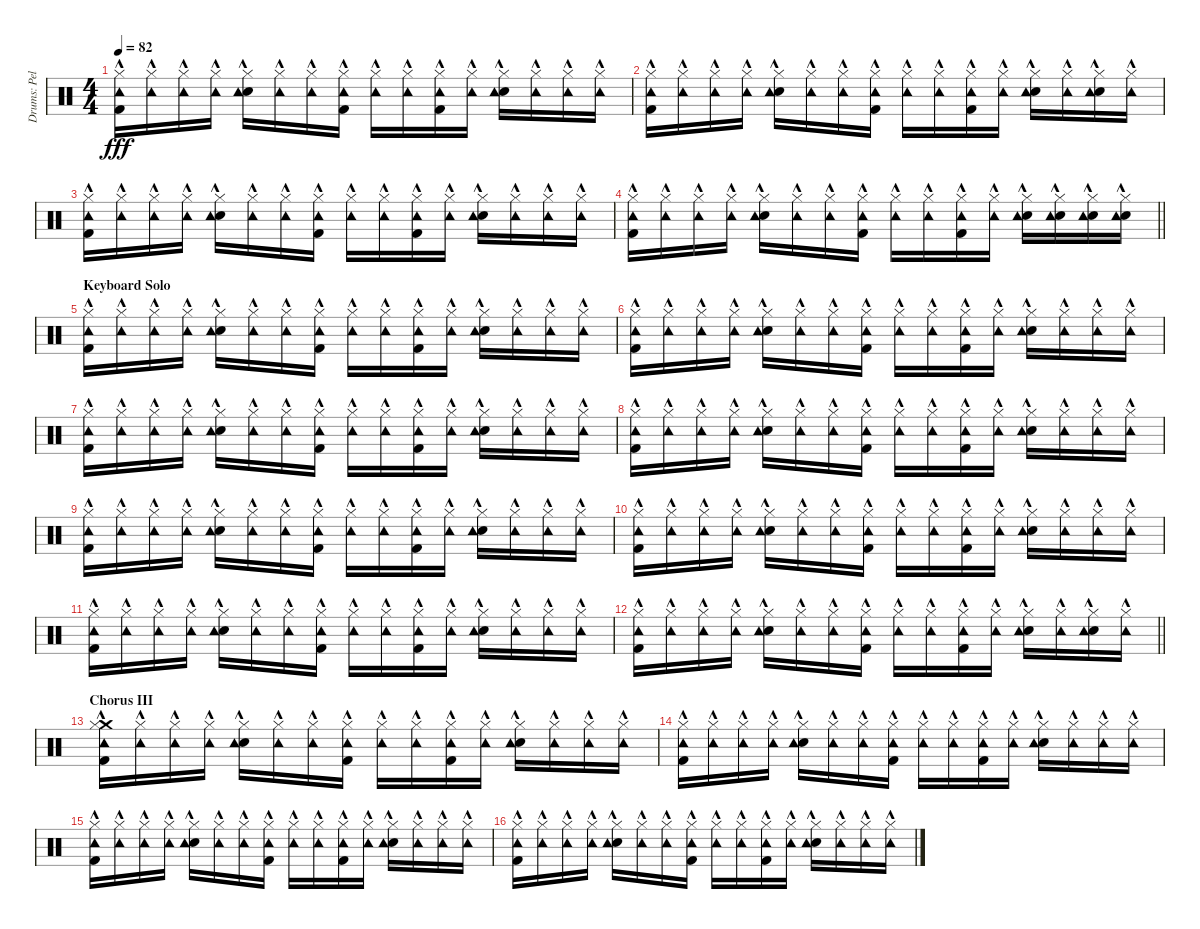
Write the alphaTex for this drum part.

\track ("Drums: Pelle" "Drums: Pel") {instrument percussion}
\staff {score}
\articulation defaults
\ts (4 4)
\tempo 82
\clef neutral
\ks c
("Hi-Hat (closed)"{hac} "Tambourine (hit)"{hac} "Kick (hit) 2"{hac}).16{dy fff} ("Hi-Hat (closed)"{hac} "Tambourine (hit)"{hac}).16 ("Hi-Hat (closed)"{hac} "Tambourine (hit)"{hac}).16 ("Hi-Hat (closed)"{hac} "Tambourine (hit)"{hac}).16 ("Hi-Hat (closed)"{hac} "Snare (hit) 2"{hac} "Tambourine (hit)"{hac}).16 ("Hi-Hat (closed)"{hac} "Tambourine (hit)"{hac}).16 ("Hi-Hat (closed)"{hac} "Tambourine (hit)"{hac}).16 ("Hi-Hat (closed)"{hac} "Tambourine (hit)"{hac} "Kick (hit) 2"{hac}).16 ("Hi-Hat (closed)"{hac} "Tambourine (hit)"{hac}).16 ("Hi-Hat (closed)"{hac} "Tambourine (hit)"{hac}).16 ("Hi-Hat (closed)"{hac} "Tambourine (hit)"{hac} "Kick (hit) 2"{hac}).16 ("Hi-Hat (closed)"{hac} "Tambourine (hit)"{hac}).16 ("Hi-Hat (closed)"{hac} "Snare (hit) 2"{hac} "Tambourine (hit)"{hac}).16 ("Hi-Hat (closed)"{hac} "Tambourine (hit)"{hac}).16 ("Hi-Hat (closed)"{hac} "Tambourine (hit)"{hac}).16 ("Hi-Hat (closed)"{hac} "Tambourine (hit)"{hac}).16 |
("Hi-Hat (closed)"{hac} "Tambourine (hit)"{hac} "Kick (hit) 2"{hac}).16 ("Hi-Hat (closed)"{hac} "Tambourine (hit)"{hac}).16 ("Hi-Hat (closed)"{hac} "Tambourine (hit)"{hac}).16 ("Hi-Hat (closed)"{hac} "Tambourine (hit)"{hac}).16 ("Hi-Hat (closed)"{hac} "Snare (hit) 2"{hac} "Tambourine (hit)"{hac}).16 ("Hi-Hat (closed)"{hac} "Tambourine (hit)"{hac}).16 ("Hi-Hat (closed)"{hac} "Tambourine (hit)"{hac}).16 ("Hi-Hat (closed)"{hac} "Tambourine (hit)"{hac} "Kick (hit) 2"{hac}).16 ("Hi-Hat (closed)"{hac} "Tambourine (hit)"{hac}).16 ("Hi-Hat (closed)"{hac} "Tambourine (hit)"{hac}).16 ("Hi-Hat (closed)"{hac} "Tambourine (hit)"{hac} "Kick (hit) 2"{hac}).16 ("Hi-Hat (closed)"{hac} "Tambourine (hit)"{hac}).16 ("Hi-Hat (closed)"{hac} "Snare (hit) 2"{hac} "Tambourine (hit)"{hac}).16 ("Hi-Hat (closed)"{hac} "Tambourine (hit)"{hac}).16 ("Hi-Hat (closed)"{hac} "Snare (hit) 2"{hac} "Tambourine (hit)"{hac}).16 ("Hi-Hat (closed)"{hac} "Tambourine (hit)"{hac}).16 |
("Hi-Hat (closed)"{hac} "Tambourine (hit)"{hac} "Kick (hit) 2"{hac}).16 ("Hi-Hat (closed)"{hac} "Tambourine (hit)"{hac}).16 ("Hi-Hat (closed)"{hac} "Tambourine (hit)"{hac}).16 ("Hi-Hat (closed)"{hac} "Tambourine (hit)"{hac}).16 ("Hi-Hat (closed)"{hac} "Snare (hit) 2"{hac} "Tambourine (hit)"{hac}).16 ("Hi-Hat (closed)"{hac} "Tambourine (hit)"{hac}).16 ("Hi-Hat (closed)"{hac} "Tambourine (hit)"{hac}).16 ("Hi-Hat (closed)"{hac} "Tambourine (hit)"{hac} "Kick (hit) 2"{hac}).16 ("Hi-Hat (closed)"{hac} "Tambourine (hit)"{hac}).16 ("Hi-Hat (closed)"{hac} "Tambourine (hit)"{hac}).16 ("Hi-Hat (closed)"{hac} "Tambourine (hit)"{hac} "Kick (hit) 2"{hac}).16 ("Hi-Hat (closed)"{hac} "Tambourine (hit)"{hac}).16 ("Hi-Hat (closed)"{hac} "Snare (hit) 2"{hac} "Tambourine (hit)"{hac}).16 ("Hi-Hat (closed)"{hac} "Tambourine (hit)"{hac}).16 ("Hi-Hat (closed)"{hac} "Tambourine (hit)"{hac}).16 ("Hi-Hat (closed)"{hac} "Tambourine (hit)"{hac}).16 |
\barLineRight lightlight
("Hi-Hat (closed)"{hac} "Tambourine (hit)"{hac} "Kick (hit) 2"{hac}).16 ("Hi-Hat (closed)"{hac} "Tambourine (hit)"{hac}).16 ("Hi-Hat (closed)"{hac} "Tambourine (hit)"{hac}).16 ("Hi-Hat (closed)"{hac} "Tambourine (hit)"{hac}).16 ("Hi-Hat (closed)"{hac} "Snare (hit) 2"{hac} "Tambourine (hit)"{hac}).16 ("Hi-Hat (closed)"{hac} "Tambourine (hit)"{hac}).16 ("Hi-Hat (closed)"{hac} "Tambourine (hit)"{hac}).16 ("Hi-Hat (closed)"{hac} "Tambourine (hit)"{hac} "Kick (hit) 2"{hac}).16 ("Hi-Hat (closed)"{hac} "Tambourine (hit)"{hac}).16 ("Hi-Hat (closed)"{hac} "Tambourine (hit)"{hac}).16 ("Hi-Hat (closed)"{hac} "Tambourine (hit)"{hac} "Kick (hit) 2"{hac}).16 ("Hi-Hat (closed)"{hac} "Tambourine (hit)"{hac}).16 ("Hi-Hat (closed)"{hac} "Snare (hit) 2"{hac} "Tambourine (hit)"{hac}).16 ("Hi-Hat (closed)"{hac} "Snare (hit) 2"{hac} "Tambourine (hit)"{hac}).16 ("Hi-Hat (closed)"{hac} "Snare (hit) 2"{hac} "Tambourine (hit)"{hac}).16 ("Hi-Hat (closed)"{hac} "Snare (hit) 2"{hac} "Tambourine (hit)"{hac}).16 |
\section ("" "Keyboard Solo")
("Hi-Hat (closed)"{hac} "Tambourine (hit)"{hac} "Kick (hit) 2"{hac}).16 ("Hi-Hat (closed)"{hac} "Tambourine (hit)"{hac}).16 ("Hi-Hat (closed)"{hac} "Tambourine (hit)"{hac}).16 ("Hi-Hat (closed)"{hac} "Tambourine (hit)"{hac}).16 ("Hi-Hat (closed)"{hac} "Snare (hit) 2"{hac} "Tambourine (hit)"{hac}).16 ("Hi-Hat (closed)"{hac} "Tambourine (hit)"{hac}).16 ("Hi-Hat (closed)"{hac} "Tambourine (hit)"{hac}).16 ("Hi-Hat (closed)"{hac} "Tambourine (hit)"{hac} "Kick (hit) 2"{hac}).16 ("Hi-Hat (closed)"{hac} "Tambourine (hit)"{hac}).16 ("Hi-Hat (closed)"{hac} "Tambourine (hit)"{hac}).16 ("Hi-Hat (closed)"{hac} "Tambourine (hit)"{hac} "Kick (hit) 2"{hac}).16 ("Hi-Hat (closed)"{hac} "Tambourine (hit)"{hac}).16 ("Hi-Hat (closed)"{hac} "Snare (hit) 2"{hac} "Tambourine (hit)"{hac}).16 ("Hi-Hat (closed)"{hac} "Tambourine (hit)"{hac}).16 ("Hi-Hat (closed)"{hac} "Tambourine (hit)"{hac}).16 ("Hi-Hat (closed)"{hac} "Tambourine (hit)"{hac}).16 |
("Hi-Hat (closed)"{hac} "Tambourine (hit)"{hac} "Kick (hit) 2"{hac}).16 ("Hi-Hat (closed)"{hac} "Tambourine (hit)"{hac}).16 ("Hi-Hat (closed)"{hac} "Tambourine (hit)"{hac}).16 ("Hi-Hat (closed)"{hac} "Tambourine (hit)"{hac}).16 ("Hi-Hat (closed)"{hac} "Snare (hit) 2"{hac} "Tambourine (hit)"{hac}).16 ("Hi-Hat (closed)"{hac} "Tambourine (hit)"{hac}).16 ("Hi-Hat (closed)"{hac} "Tambourine (hit)"{hac}).16 ("Hi-Hat (closed)"{hac} "Tambourine (hit)"{hac} "Kick (hit) 2"{hac}).16 ("Hi-Hat (closed)"{hac} "Tambourine (hit)"{hac}).16 ("Hi-Hat (closed)"{hac} "Tambourine (hit)"{hac}).16 ("Hi-Hat (closed)"{hac} "Tambourine (hit)"{hac} "Kick (hit) 2"{hac}).16 ("Hi-Hat (closed)"{hac} "Tambourine (hit)"{hac}).16 ("Hi-Hat (closed)"{hac} "Snare (hit) 2"{hac} "Tambourine (hit)"{hac}).16 ("Hi-Hat (closed)"{hac} "Tambourine (hit)"{hac}).16 ("Hi-Hat (closed)"{hac} "Tambourine (hit)"{hac}).16 ("Hi-Hat (closed)"{hac} "Tambourine (hit)"{hac}).16 |
("Hi-Hat (closed)"{hac} "Tambourine (hit)"{hac} "Kick (hit) 2"{hac}).16 ("Hi-Hat (closed)"{hac} "Tambourine (hit)"{hac}).16 ("Hi-Hat (closed)"{hac} "Tambourine (hit)"{hac}).16 ("Hi-Hat (closed)"{hac} "Tambourine (hit)"{hac}).16 ("Hi-Hat (closed)"{hac} "Snare (hit) 2"{hac} "Tambourine (hit)"{hac}).16 ("Hi-Hat (closed)"{hac} "Tambourine (hit)"{hac}).16 ("Hi-Hat (closed)"{hac} "Tambourine (hit)"{hac}).16 ("Hi-Hat (closed)"{hac} "Tambourine (hit)"{hac} "Kick (hit) 2"{hac}).16 ("Hi-Hat (closed)"{hac} "Tambourine (hit)"{hac}).16 ("Hi-Hat (closed)"{hac} "Tambourine (hit)"{hac}).16 ("Hi-Hat (closed)"{hac} "Tambourine (hit)"{hac} "Kick (hit) 2"{hac}).16 ("Hi-Hat (closed)"{hac} "Tambourine (hit)"{hac}).16 ("Hi-Hat (closed)"{hac} "Snare (hit) 2"{hac} "Tambourine (hit)"{hac}).16 ("Hi-Hat (closed)"{hac} "Tambourine (hit)"{hac}).16 ("Hi-Hat (closed)"{hac} "Tambourine (hit)"{hac}).16 ("Hi-Hat (closed)"{hac} "Tambourine (hit)"{hac}).16 |
("Hi-Hat (closed)"{hac} "Tambourine (hit)"{hac} "Kick (hit) 2"{hac}).16 ("Hi-Hat (closed)"{hac} "Tambourine (hit)"{hac}).16 ("Hi-Hat (closed)"{hac} "Tambourine (hit)"{hac}).16 ("Hi-Hat (closed)"{hac} "Tambourine (hit)"{hac}).16 ("Hi-Hat (closed)"{hac} "Snare (hit) 2"{hac} "Tambourine (hit)"{hac}).16 ("Hi-Hat (closed)"{hac} "Tambourine (hit)"{hac}).16 ("Hi-Hat (closed)"{hac} "Tambourine (hit)"{hac}).16 ("Hi-Hat (closed)"{hac} "Tambourine (hit)"{hac} "Kick (hit) 2"{hac}).16 ("Hi-Hat (closed)"{hac} "Tambourine (hit)"{hac}).16 ("Hi-Hat (closed)"{hac} "Tambourine (hit)"{hac}).16 ("Hi-Hat (closed)"{hac} "Tambourine (hit)"{hac} "Kick (hit) 2"{hac}).16 ("Hi-Hat (closed)"{hac} "Tambourine (hit)"{hac}).16 ("Hi-Hat (closed)"{hac} "Snare (hit) 2"{hac} "Tambourine (hit)"{hac}).16 ("Hi-Hat (closed)"{hac} "Tambourine (hit)"{hac}).16 ("Hi-Hat (closed)"{hac} "Tambourine (hit)"{hac}).16 ("Hi-Hat (closed)"{hac} "Tambourine (hit)"{hac}).16 |
("Hi-Hat (closed)"{hac} "Tambourine (hit)"{hac} "Kick (hit) 2"{hac}).16 ("Hi-Hat (closed)"{hac} "Tambourine (hit)"{hac}).16 ("Hi-Hat (closed)"{hac} "Tambourine (hit)"{hac}).16 ("Hi-Hat (closed)"{hac} "Tambourine (hit)"{hac}).16 ("Hi-Hat (closed)"{hac} "Snare (hit) 2"{hac} "Tambourine (hit)"{hac}).16 ("Hi-Hat (closed)"{hac} "Tambourine (hit)"{hac}).16 ("Hi-Hat (closed)"{hac} "Tambourine (hit)"{hac}).16 ("Hi-Hat (closed)"{hac} "Tambourine (hit)"{hac} "Kick (hit) 2"{hac}).16 ("Hi-Hat (closed)"{hac} "Tambourine (hit)"{hac}).16 ("Hi-Hat (closed)"{hac} "Tambourine (hit)"{hac}).16 ("Hi-Hat (closed)"{hac} "Tambourine (hit)"{hac} "Kick (hit) 2"{hac}).16 ("Hi-Hat (closed)"{hac} "Tambourine (hit)"{hac}).16 ("Hi-Hat (closed)"{hac} "Snare (hit) 2"{hac} "Tambourine (hit)"{hac}).16 ("Hi-Hat (closed)"{hac} "Tambourine (hit)"{hac}).16 ("Hi-Hat (closed)"{hac} "Tambourine (hit)"{hac}).16 ("Hi-Hat (closed)"{hac} "Tambourine (hit)"{hac}).16 |
("Hi-Hat (closed)"{hac} "Tambourine (hit)"{hac} "Kick (hit) 2"{hac}).16 ("Hi-Hat (closed)"{hac} "Tambourine (hit)"{hac}).16 ("Hi-Hat (closed)"{hac} "Tambourine (hit)"{hac}).16 ("Hi-Hat (closed)"{hac} "Tambourine (hit)"{hac}).16 ("Hi-Hat (closed)"{hac} "Snare (hit) 2"{hac} "Tambourine (hit)"{hac}).16 ("Hi-Hat (closed)"{hac} "Tambourine (hit)"{hac}).16 ("Hi-Hat (closed)"{hac} "Tambourine (hit)"{hac}).16 ("Hi-Hat (closed)"{hac} "Tambourine (hit)"{hac} "Kick (hit) 2"{hac}).16 ("Hi-Hat (closed)"{hac} "Tambourine (hit)"{hac}).16 ("Hi-Hat (closed)"{hac} "Tambourine (hit)"{hac}).16 ("Hi-Hat (closed)"{hac} "Tambourine (hit)"{hac} "Kick (hit) 2"{hac}).16 ("Hi-Hat (closed)"{hac} "Tambourine (hit)"{hac}).16 ("Hi-Hat (closed)"{hac} "Snare (hit) 2"{hac} "Tambourine (hit)"{hac}).16 ("Hi-Hat (closed)"{hac} "Tambourine (hit)"{hac}).16 ("Hi-Hat (closed)"{hac} "Tambourine (hit)"{hac}).16 ("Hi-Hat (closed)"{hac} "Tambourine (hit)"{hac}).16 |
("Hi-Hat (closed)"{hac} "Tambourine (hit)"{hac} "Kick (hit) 2"{hac}).16 ("Hi-Hat (closed)"{hac} "Tambourine (hit)"{hac}).16 ("Hi-Hat (closed)"{hac} "Tambourine (hit)"{hac}).16 ("Hi-Hat (closed)"{hac} "Tambourine (hit)"{hac}).16 ("Hi-Hat (closed)"{hac} "Snare (hit) 2"{hac} "Tambourine (hit)"{hac}).16 ("Hi-Hat (closed)"{hac} "Tambourine (hit)"{hac}).16 ("Hi-Hat (closed)"{hac} "Tambourine (hit)"{hac}).16 ("Hi-Hat (closed)"{hac} "Tambourine (hit)"{hac} "Kick (hit) 2"{hac}).16 ("Hi-Hat (closed)"{hac} "Tambourine (hit)"{hac}).16 ("Hi-Hat (closed)"{hac} "Tambourine (hit)"{hac}).16 ("Hi-Hat (closed)"{hac} "Tambourine (hit)"{hac} "Kick (hit) 2"{hac}).16 ("Hi-Hat (closed)"{hac} "Tambourine (hit)"{hac}).16 ("Hi-Hat (closed)"{hac} "Snare (hit) 2"{hac} "Tambourine (hit)"{hac}).16 ("Hi-Hat (closed)"{hac} "Tambourine (hit)"{hac}).16 ("Hi-Hat (closed)"{hac} "Tambourine (hit)"{hac}).16 ("Hi-Hat (closed)"{hac} "Tambourine (hit)"{hac}).16 |
\barLineRight lightlight
("Hi-Hat (closed)"{hac} "Tambourine (hit)"{hac} "Kick (hit) 2"{hac}).16 ("Hi-Hat (closed)"{hac} "Tambourine (hit)"{hac}).16 ("Hi-Hat (closed)"{hac} "Tambourine (hit)"{hac}).16 ("Hi-Hat (closed)"{hac} "Tambourine (hit)"{hac}).16 ("Hi-Hat (closed)"{hac} "Snare (hit) 2"{hac} "Tambourine (hit)"{hac}).16 ("Hi-Hat (closed)"{hac} "Tambourine (hit)"{hac}).16 ("Hi-Hat (closed)"{hac} "Tambourine (hit)"{hac}).16 ("Hi-Hat (closed)"{hac} "Tambourine (hit)"{hac} "Kick (hit) 2"{hac}).16 ("Hi-Hat (closed)"{hac} "Tambourine (hit)"{hac}).16 ("Hi-Hat (closed)"{hac} "Tambourine (hit)"{hac}).16 ("Hi-Hat (closed)"{hac} "Tambourine (hit)"{hac} "Kick (hit) 2"{hac}).16 ("Hi-Hat (closed)"{hac} "Tambourine (hit)"{hac}).16 ("Hi-Hat (closed)"{hac} "Snare (hit) 2"{hac} "Tambourine (hit)"{hac}).16 ("Hi-Hat (closed)"{hac} "Tambourine (hit)"{hac}).16 ("Hi-Hat (closed)"{hac} "Snare (hit) 2"{hac} "Tambourine (hit)"{hac}).16 ("Hi-Hat (closed)"{hac} "Tambourine (hit)"{hac}).16 |
\section ("" "Chorus III")
("Crash medium (hit)"{hac} "Hi-Hat (closed)"{hac} "Tambourine (hit)"{hac} "Kick (hit) 2"{hac}).16 ("Hi-Hat (closed)"{hac} "Tambourine (hit)"{hac}).16 ("Hi-Hat (closed)"{hac} "Tambourine (hit)"{hac}).16 ("Hi-Hat (closed)"{hac} "Tambourine (hit)"{hac}).16 ("Hi-Hat (closed)"{hac} "Snare (hit) 2"{hac} "Tambourine (hit)"{hac}).16 ("Hi-Hat (closed)"{hac} "Tambourine (hit)"{hac}).16 ("Hi-Hat (closed)"{hac} "Tambourine (hit)"{hac}).16 ("Hi-Hat (closed)"{hac} "Tambourine (hit)"{hac} "Kick (hit) 2"{hac}).16 ("Hi-Hat (closed)"{hac} "Tambourine (hit)"{hac}).16 ("Hi-Hat (closed)"{hac} "Tambourine (hit)"{hac}).16 ("Hi-Hat (closed)"{hac} "Tambourine (hit)"{hac} "Kick (hit) 2"{hac}).16 ("Hi-Hat (closed)"{hac} "Tambourine (hit)"{hac}).16 ("Hi-Hat (closed)"{hac} "Snare (hit) 2"{hac} "Tambourine (hit)"{hac}).16 ("Hi-Hat (closed)"{hac} "Tambourine (hit)"{hac}).16 ("Hi-Hat (closed)"{hac} "Tambourine (hit)"{hac}).16 ("Hi-Hat (closed)"{hac} "Tambourine (hit)"{hac}).16 |
("Hi-Hat (closed)"{hac} "Tambourine (hit)"{hac} "Kick (hit) 2"{hac}).16 ("Hi-Hat (closed)"{hac} "Tambourine (hit)"{hac}).16 ("Hi-Hat (closed)"{hac} "Tambourine (hit)"{hac}).16 ("Hi-Hat (closed)"{hac} "Tambourine (hit)"{hac}).16 ("Hi-Hat (closed)"{hac} "Snare (hit) 2"{hac} "Tambourine (hit)"{hac}).16 ("Hi-Hat (closed)"{hac} "Tambourine (hit)"{hac}).16 ("Hi-Hat (closed)"{hac} "Tambourine (hit)"{hac}).16 ("Hi-Hat (closed)"{hac} "Tambourine (hit)"{hac} "Kick (hit) 2"{hac}).16 ("Hi-Hat (closed)"{hac} "Tambourine (hit)"{hac}).16 ("Hi-Hat (closed)"{hac} "Tambourine (hit)"{hac}).16 ("Hi-Hat (closed)"{hac} "Tambourine (hit)"{hac} "Kick (hit) 2"{hac}).16 ("Hi-Hat (closed)"{hac} "Tambourine (hit)"{hac}).16 ("Hi-Hat (closed)"{hac} "Snare (hit) 2"{hac} "Tambourine (hit)"{hac}).16 ("Hi-Hat (closed)"{hac} "Tambourine (hit)"{hac}).16 ("Hi-Hat (closed)"{hac} "Tambourine (hit)"{hac}).16 ("Hi-Hat (closed)"{hac} "Tambourine (hit)"{hac}).16 |
("Hi-Hat (closed)"{hac} "Tambourine (hit)"{hac} "Kick (hit) 2"{hac}).16 ("Hi-Hat (closed)"{hac} "Tambourine (hit)"{hac}).16 ("Hi-Hat (closed)"{hac} "Tambourine (hit)"{hac}).16 ("Hi-Hat (closed)"{hac} "Tambourine (hit)"{hac}).16 ("Hi-Hat (closed)"{hac} "Snare (hit) 2"{hac} "Tambourine (hit)"{hac}).16 ("Hi-Hat (closed)"{hac} "Tambourine (hit)"{hac}).16 ("Hi-Hat (closed)"{hac} "Tambourine (hit)"{hac}).16 ("Hi-Hat (closed)"{hac} "Tambourine (hit)"{hac} "Kick (hit) 2"{hac}).16 ("Hi-Hat (closed)"{hac} "Tambourine (hit)"{hac}).16 ("Hi-Hat (closed)"{hac} "Tambourine (hit)"{hac}).16 ("Hi-Hat (closed)"{hac} "Tambourine (hit)"{hac} "Kick (hit) 2"{hac}).16 ("Hi-Hat (closed)"{hac} "Tambourine (hit)"{hac}).16 ("Hi-Hat (closed)"{hac} "Snare (hit) 2"{hac} "Tambourine (hit)"{hac}).16 ("Hi-Hat (closed)"{hac} "Tambourine (hit)"{hac}).16 ("Hi-Hat (closed)"{hac} "Tambourine (hit)"{hac}).16 ("Hi-Hat (closed)"{hac} "Tambourine (hit)"{hac}).16 |
("Hi-Hat (closed)"{hac} "Tambourine (hit)"{hac} "Kick (hit) 2"{hac}).16 ("Hi-Hat (closed)"{hac} "Tambourine (hit)"{hac}).16 ("Hi-Hat (closed)"{hac} "Tambourine (hit)"{hac}).16 ("Hi-Hat (closed)"{hac} "Tambourine (hit)"{hac}).16 ("Hi-Hat (closed)"{hac} "Snare (hit) 2"{hac} "Tambourine (hit)"{hac}).16 ("Hi-Hat (closed)"{hac} "Tambourine (hit)"{hac}).16 ("Hi-Hat (closed)"{hac} "Tambourine (hit)"{hac}).16 ("Hi-Hat (closed)"{hac} "Tambourine (hit)"{hac} "Kick (hit) 2"{hac}).16 ("Hi-Hat (closed)"{hac} "Tambourine (hit)"{hac}).16 ("Hi-Hat (closed)"{hac} "Tambourine (hit)"{hac}).16 ("Hi-Hat (closed)"{hac} "Tambourine (hit)"{hac} "Kick (hit) 2"{hac}).16 ("Hi-Hat (closed)"{hac} "Tambourine (hit)"{hac}).16 ("Hi-Hat (closed)"{hac} "Snare (hit) 2"{hac} "Tambourine (hit)"{hac}).16 ("Hi-Hat (closed)"{hac} "Tambourine (hit)"{hac}).16 ("Hi-Hat (closed)"{hac} "Tambourine (hit)"{hac}).16 ("Hi-Hat (closed)"{hac} "Tambourine (hit)"{hac}).16
